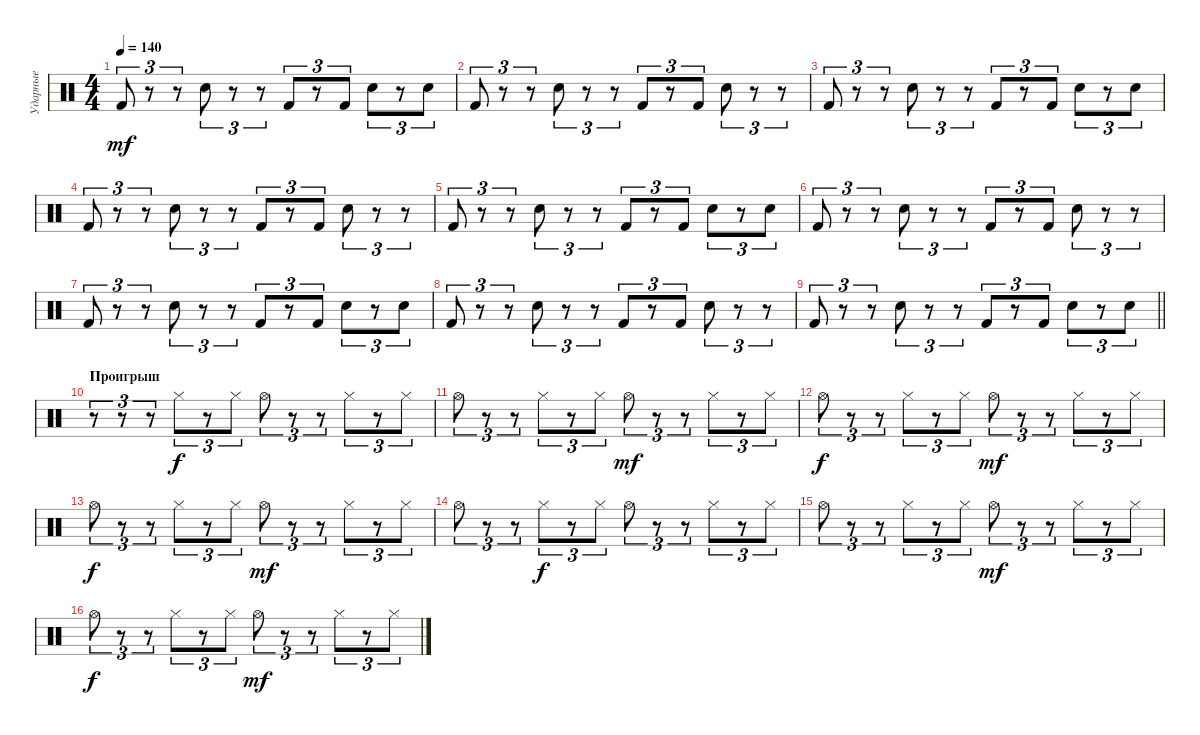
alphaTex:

\track ("Ударные" "Ударные") {instrument percussion}
\staff {score}
\articulation defaults
\ts (4 4)
\tempo 140
\clef neutral
\ks c "Kick (hit) 2".8{tu (3 2) dy mf}
r.8{tu (3 2)} r.8{tu (3 2)} "Electric Snare (hit)".8{tu (3 2)} r.8{tu (3 2)} r.8{tu (3 2)} "Kick (hit) 2".8{tu (3 2)} r.8{tu (3 2)} "Kick (hit) 2".8{tu (3 2)} "Electric Snare (hit)".8{tu (3 2)} r.8{tu (3 2)} "Electric Snare (hit)".8{tu (3 2)} |
"Kick (hit) 2".8{tu (3 2)} r.8{tu (3 2)} r.8{tu (3 2)} "Electric Snare (hit)".8{tu (3 2)} r.8{tu (3 2)} r.8{tu (3 2)} "Kick (hit) 2".8{tu (3 2)} r.8{tu (3 2)} "Kick (hit) 2".8{tu (3 2)} "Electric Snare (hit)".8{tu (3 2)} r.8{tu (3 2)} r.8{tu (3 2)} |
"Kick (hit) 2".8{tu (3 2)} r.8{tu (3 2)} r.8{tu (3 2)} "Electric Snare (hit)".8{tu (3 2)} r.8{tu (3 2)} r.8{tu (3 2)} "Kick (hit) 2".8{tu (3 2)} r.8{tu (3 2)} "Kick (hit) 2".8{tu (3 2)} "Electric Snare (hit)".8{tu (3 2)} r.8{tu (3 2)} "Electric Snare (hit)".8{tu (3 2)} |
"Kick (hit) 2".8{tu (3 2)} r.8{tu (3 2)} r.8{tu (3 2)} "Electric Snare (hit)".8{tu (3 2)} r.8{tu (3 2)} r.8{tu (3 2)} "Kick (hit) 2".8{tu (3 2)} r.8{tu (3 2)} "Kick (hit) 2".8{tu (3 2)} "Electric Snare (hit)".8{tu (3 2)} r.8{tu (3 2)} r.8{tu (3 2)} |
"Kick (hit) 2".8{tu (3 2)} r.8{tu (3 2)} r.8{tu (3 2)} "Electric Snare (hit)".8{tu (3 2)} r.8{tu (3 2)} r.8{tu (3 2)} "Kick (hit) 2".8{tu (3 2)} r.8{tu (3 2)} "Kick (hit) 2".8{tu (3 2)} "Electric Snare (hit)".8{tu (3 2)} r.8{tu (3 2)} "Electric Snare (hit)".8{tu (3 2)} |
"Kick (hit) 2".8{tu (3 2)} r.8{tu (3 2)} r.8{tu (3 2)} "Electric Snare (hit)".8{tu (3 2)} r.8{tu (3 2)} r.8{tu (3 2)} "Kick (hit) 2".8{tu (3 2)} r.8{tu (3 2)} "Kick (hit) 2".8{tu (3 2)} "Electric Snare (hit)".8{tu (3 2)} r.8{tu (3 2)} r.8{tu (3 2)} |
"Kick (hit) 2".8{tu (3 2)} r.8{tu (3 2)} r.8{tu (3 2)} "Electric Snare (hit)".8{tu (3 2)} r.8{tu (3 2)} r.8{tu (3 2)} "Kick (hit) 2".8{tu (3 2)} r.8{tu (3 2)} "Kick (hit) 2".8{tu (3 2)} "Electric Snare (hit)".8{tu (3 2)} r.8{tu (3 2)} "Electric Snare (hit)".8{tu (3 2)} |
"Kick (hit) 2".8{tu (3 2)} r.8{tu (3 2)} r.8{tu (3 2)} "Electric Snare (hit)".8{tu (3 2)} r.8{tu (3 2)} r.8{tu (3 2)} "Kick (hit) 2".8{tu (3 2)} r.8{tu (3 2)} "Kick (hit) 2".8{tu (3 2)} "Electric Snare (hit)".8{tu (3 2)} r.8{tu (3 2)} r.8{tu (3 2)} |
\barLineRight lightlight "Kick (hit) 2".8{tu (3 2)}
r.8{tu (3 2)} r.8{tu (3 2)} "Electric Snare (hit)".8{tu (3 2)} r.8{tu (3 2)} r.8{tu (3 2)} "Kick (hit) 2".8{tu (3 2)} r.8{tu (3 2)} "Kick (hit) 2".8{tu (3 2)} "Electric Snare (hit)".8{tu (3 2)} r.8{tu (3 2)} "Electric Snare (hit)".8{tu (3 2)} |
\section ("" "Проигрыш")
r.8{tu (3 2)} r.8{tu (3 2)} r.8{tu (3 2)} "Hi-Hat (closed)".8{tu (3 2) dy f} r.8{tu (3 2)} "Hi-Hat (closed)".8{tu (3 2)} "Hi-Hat (open)".8{tu (3 2)} r.8{tu (3 2)} r.8{tu (3 2)} "Hi-Hat (closed)".8{tu (3 2)} r.8{tu (3 2)} "Hi-Hat (closed)".8{tu (3 2)} |
"Hi-Hat (open)".8{tu (3 2)} r.8{tu (3 2)} r.8{tu (3 2)} "Hi-Hat (closed)".8{tu (3 2)} r.8{tu (3 2)} "Hi-Hat (closed)".8{tu (3 2)} "Hi-Hat (open)".8{tu (3 2) dy mf} r.8{tu (3 2)} r.8{tu (3 2)} "Hi-Hat (closed)".8{tu (3 2)} r.8{tu (3 2)} "Hi-Hat (closed)".8{tu (3 2)} |
"Hi-Hat (open)".8{tu (3 2) dy f} r.8{tu (3 2)} r.8{tu (3 2)} "Hi-Hat (closed)".8{tu (3 2)} r.8{tu (3 2)} "Hi-Hat (closed)".8{tu (3 2)} "Hi-Hat (open)".8{tu (3 2) dy mf} r.8{tu (3 2)} r.8{tu (3 2)} "Hi-Hat (closed)".8{tu (3 2)} r.8{tu (3 2)} "Hi-Hat (closed)".8{tu (3 2)} |
"Hi-Hat (open)".8{tu (3 2) dy f} r.8{tu (3 2)} r.8{tu (3 2)} "Hi-Hat (closed)".8{tu (3 2)} r.8{tu (3 2)} "Hi-Hat (closed)".8{tu (3 2)} "Hi-Hat (open)".8{tu (3 2) dy mf} r.8{tu (3 2)} r.8{tu (3 2)} "Hi-Hat (closed)".8{tu (3 2)} r.8{tu (3 2)} "Hi-Hat (closed)".8{tu (3 2)} |
"Hi-Hat (open)".8{tu (3 2)} r.8{tu (3 2)} r.8{tu (3 2)} "Hi-Hat (closed)".8{tu (3 2) dy f} r.8{tu (3 2)} "Hi-Hat (closed)".8{tu (3 2)} "Hi-Hat (open)".8{tu (3 2)} r.8{tu (3 2)} r.8{tu (3 2)} "Hi-Hat (closed)".8{tu (3 2)} r.8{tu (3 2)} "Hi-Hat (closed)".8{tu (3 2)} |
"Hi-Hat (open)".8{tu (3 2)} r.8{tu (3 2)} r.8{tu (3 2)} "Hi-Hat (closed)".8{tu (3 2)} r.8{tu (3 2)} "Hi-Hat (closed)".8{tu (3 2)} "Hi-Hat (open)".8{tu (3 2) dy mf} r.8{tu (3 2)} r.8{tu (3 2)} "Hi-Hat (closed)".8{tu (3 2)} r.8{tu (3 2)} "Hi-Hat (closed)".8{tu (3 2)} |
"Hi-Hat (open)".8{tu (3 2) dy f} r.8{tu (3 2)} r.8{tu (3 2)} "Hi-Hat (closed)".8{tu (3 2)} r.8{tu (3 2)} "Hi-Hat (closed)".8{tu (3 2)} "Hi-Hat (open)".8{tu (3 2) dy mf} r.8{tu (3 2)} r.8{tu (3 2)} "Hi-Hat (closed)".8{tu (3 2)} r.8{tu (3 2)} "Hi-Hat (closed)".8{tu (3 2)}
